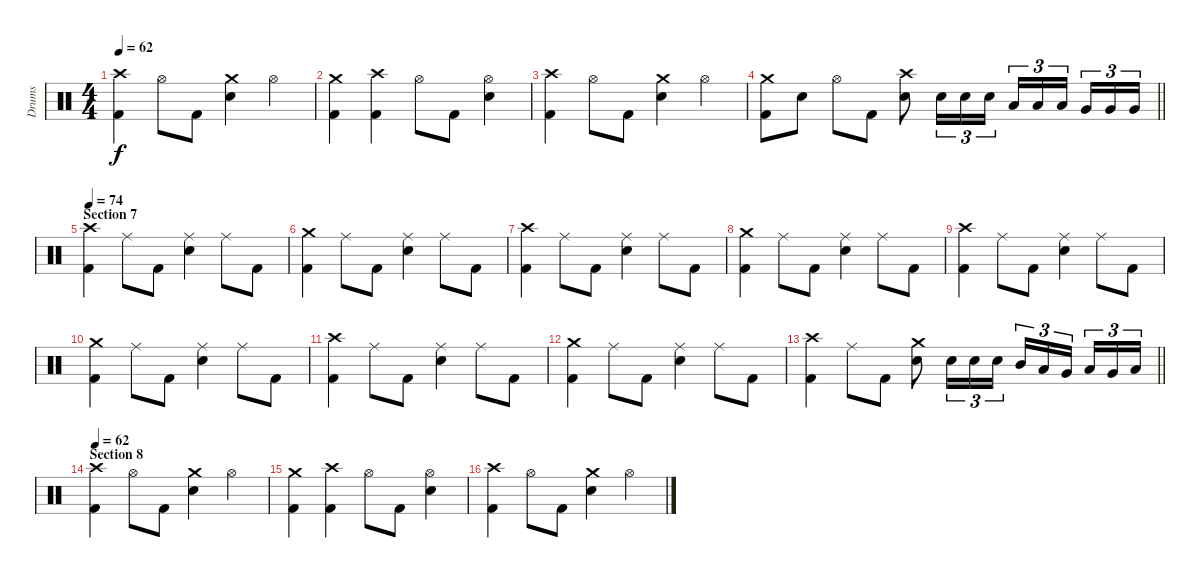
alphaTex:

\track ("Drums" "Drums") {instrument percussion}
\staff {score}
\articulation defaults
\ts (4 4)
\tempo 62
\clef neutral
\ks c
("Crash high (hit)" "Kick (hit) 2").4{dy f} "Hi-Hat (open)".8 "Kick (hit) 2".8 ("Crash medium (hit)" "Electric Snare (hit)").4 "Hi-Hat (open)".4 |
("Crash medium (hit)" "Kick (hit) 2").4 ("Crash high (hit)" "Kick (hit) 2").4 "Hi-Hat (open)".8 "Kick (hit) 2".8 ("Hi-Hat (open)" "Electric Snare (hit)").4 |
("Crash high (hit)" "Kick (hit) 2").4 "Hi-Hat (open)".8 "Kick (hit) 2".8 ("Crash medium (hit)" "Electric Snare (hit)").4 "Hi-Hat (open)".4 |
\barLineRight lightlight
("Crash medium (hit)" "Kick (hit) 2").8 "Electric Snare (hit)".8 "Hi-Hat (open)".8 "Kick (hit) 2".8 ("Crash high (hit)" "Electric Snare (hit)").8 "Electric Snare (hit)".16{tu (3 2)} "Electric Snare (hit)".16{tu (3 2)} "Electric Snare (hit)".16{tu (3 2)} "Low Tom (hit)".16{tu (3 2)} "Low Tom (hit)".16{tu (3 2)} "Low Tom (hit)".16{tu (3 2) beam splitsecondary} "Very Low Tom (hit)".16{tu (3 2)} "Very Low Tom (hit)".16{tu (3 2)} "Very Low Tom (hit)".16{tu (3 2)} |
\section ("" "Section 7")
\tempo 74
("Crash high (hit)" "Kick (hit) 2").4 "Ride (middle)".8 "Kick (hit) 2".8 ("Ride (middle)" "Electric Snare (hit)").4 "Ride (middle)".8 "Kick (hit) 2".8 |
("Crash medium (hit)" "Kick (hit) 2").4 "Ride (middle)".8 "Kick (hit) 2".8 ("Ride (middle)" "Electric Snare (hit)").4 "Ride (middle)".8 "Kick (hit) 2".8 |
("Crash high (hit)" "Kick (hit) 2").4 "Ride (middle)".8 "Kick (hit) 2".8 ("Ride (middle)" "Electric Snare (hit)").4 "Ride (middle)".8 "Kick (hit) 2".8 |
("Crash medium (hit)" "Kick (hit) 2").4 "Ride (middle)".8 "Kick (hit) 2".8 ("Ride (middle)" "Electric Snare (hit)").4 "Ride (middle)".8 "Kick (hit) 2".8 |
("Crash high (hit)" "Kick (hit) 2").4 "Ride (middle)".8 "Kick (hit) 2".8 ("Ride (middle)" "Electric Snare (hit)").4 "Ride (middle)".8 "Kick (hit) 2".8 |
("Crash medium (hit)" "Kick (hit) 2").4 "Ride (middle)".8 "Kick (hit) 2".8 ("Ride (middle)" "Electric Snare (hit)").4 "Ride (middle)".8 "Kick (hit) 2".8 |
("Crash high (hit)" "Kick (hit) 2").4 "Ride (middle)".8 "Kick (hit) 2".8 ("Ride (middle)" "Electric Snare (hit)").4 "Ride (middle)".8 "Kick (hit) 2".8 |
("Crash medium (hit)" "Kick (hit) 2").4 "Ride (middle)".8 "Kick (hit) 2".8 ("Ride (middle)" "Electric Snare (hit)").4 "Ride (middle)".8 "Kick (hit) 2".8 |
\barLineRight lightlight
("Crash high (hit)" "Kick (hit) 2").4 "Ride (middle)".8 "Kick (hit) 2".8 ("Crash medium (hit)" "Electric Snare (hit)").8 "Electric Snare (hit)".16{tu (3 2)} "Electric Snare (hit)".16{tu (3 2)} "Electric Snare (hit)".16{tu (3 2)} "Mid Tom (hit)".16{tu (3 2)} "Low Tom (hit)".16{tu (3 2)} "Very Low Tom (hit)".16{tu (3 2) beam splitsecondary} "Low Tom (hit)".16{tu (3 2)} "Very Low Tom (hit)".16{tu (3 2)} "Low Floor Tom (hit)".16{tu (3 2)} |
\section ("" "Section 8")
\tempo 62
("Crash high (hit)" "Kick (hit) 2").4 "Hi-Hat (open)".8 "Kick (hit) 2".8 ("Crash medium (hit)" "Electric Snare (hit)").4 "Hi-Hat (open)".4 |
("Crash medium (hit)" "Kick (hit) 2").4 ("Crash high (hit)" "Kick (hit) 2").4 "Hi-Hat (open)".8 "Kick (hit) 2".8 ("Hi-Hat (open)" "Electric Snare (hit)").4 |
("Crash high (hit)" "Kick (hit) 2").4 "Hi-Hat (open)".8 "Kick (hit) 2".8 ("Crash medium (hit)" "Electric Snare (hit)").4 "Hi-Hat (open)".4
